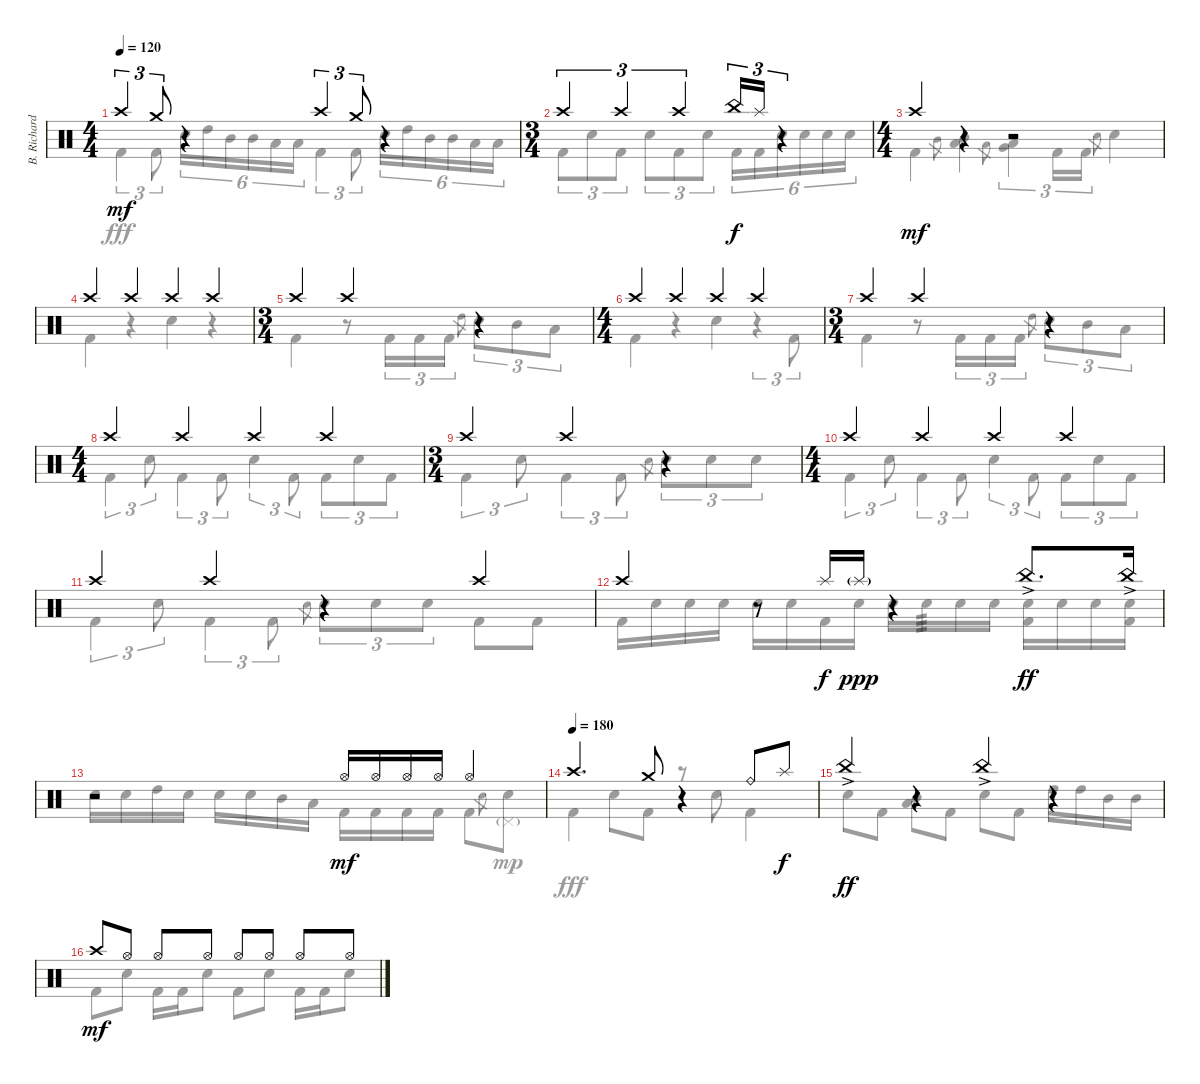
\track ("B. Richardson Drums" "B. Richard") {instrument percussion}
\staff {score}
\articulation defaults
\voice
\ts (4 4)
\tempo 120
\clef neutral
\ks c "Crash high (hit)".4{tu (3 2) dy mf} "Crash medium (hit)".8{tu (3 2)}
r.4 "Crash high (hit)".4{tu (3 2)} "Crash medium (hit)".8{tu (3 2)} r.4 |
\ts (3 4)
"Crash high (hit)".4{tu (3 2)} "Crash high (hit)".4{tu (3 2)} "Crash high (hit)".4{tu (3 2)} "China (hit)".16{tu (3 2) dy f} "Splash (hit)".16{tu (3 2)} r.4{tu (3 2)} |
\ts (4 4)
"Crash high (hit)".4{dy mf} r.4 r.2 |
"Crash high (hit)".4 "Crash high (hit)".4 "Crash high (hit)".4 "Crash high (hit)".4 |
\ts (3 4)
"Crash high (hit)".4 "Crash high (hit)".4 r.4 |
\ts (4 4)
"Crash high (hit)".4 "Crash high (hit)".4 "Crash high (hit)".4 "Crash high (hit)".4 |
\ts (3 4)
"Crash high (hit)".4 "Crash high (hit)".4 r.4 |
\ts (4 4)
"Crash high (hit)".4 "Crash high (hit)".4 "Crash high (hit)".4 "Crash high (hit)".4 |
\ts (3 4)
"Crash high (hit)".4 "Crash high (hit)".4 r.4 |
\ts (4 4)
"Crash high (hit)".4 "Crash high (hit)".4 "Crash high (hit)".4 "Crash high (hit)".4 |
"Crash high (hit)".4 "Crash high (hit)".4 r.4 "Crash high (hit)".4 |
"Crash high (hit)".4 r.8 "Splash (hit)".16{dy f} "Splash (hit)"{g}.16{dy ppp} r.4 "China (hit)"{ac}.8{d dy ff} "China (hit)"{ac}.16 |
r.2 "Hi-Hat (open)".16{dy mf} "Hi-Hat (open)".16 "Hi-Hat (open)".16 "Hi-Hat (open)".16 "Hi-Hat (open)".4 |
\tempo (180)
"Crash high (hit)".4{d} "Crash medium (hit)".8 r.4 "Ride (bell)".8 "Splash (hit)".8{dy f} |
"China (hit)"{ac}.4{dy ff} r.4 "China (hit)"{ac}.4 r.4 |
"Crash high (hit)".8{dy mf} "Hi-Hat (open)".8 "Hi-Hat (open)".8 "Hi-Hat (open)".8 "Hi-Hat (open)".8 "Hi-Hat (open)".8 "Hi-Hat (open)".8 "Hi-Hat (open)".8
\voice
\clef neutral
\ottava regular
\simile none
\ks c "Kick (hit) 2".4{tu (3 2) dy fff} "Kick (hit) 2".8{tu (3 2)} "Electric Snare (hit)".16{tu (6 4)} "High Tom (hit)".16{tu (6 4)} "Mid Tom (hit)".16{tu (6 4)} "Mid Tom (hit)".16{tu (6 4)} "Low Tom (hit)".16{tu (6 4)} "Low Tom (hit)".16{tu (6 4)} "Kick (hit) 2".4{tu (3 2)} "Kick (hit) 2".8{tu (3 2)} "Electric Snare (hit)".16{tu (6 4)} "High Tom (hit)".16{tu (6 4)} "Mid Tom (hit)".16{tu (6 4)} "Mid Tom (hit)".16{tu (6 4)} "Low Tom (hit)".16{tu (6 4)} "Low Tom (hit)".16{tu (6 4)}
|
"Kick (hit) 2".8{tu (3 2)} "Electric Snare (hit)".8{tu (3 2)} "Kick (hit) 2".8{tu (3 2)} "Electric Snare (hit)".8{tu (3 2)} "Kick (hit) 2".8{tu (3 2)} "Electric Snare (hit)".8{tu (3 2)} "Kick (hit) 2".16{tu (6 4)} "Kick (hit) 2".16{tu (6 4)} "Electric Snare (hit)".16{tu (6 4)} "Electric Snare (hit)".16{tu (6 4)} "Electric Snare (hit)".16{tu (6 4)} "Electric Snare (hit)".16{tu (6 4)} |
"Kick (hit) 2".4 "Mid Tom (hit)".8{gr} ("Mid Tom (hit)" "Low Tom (hit)").4 "Low Tom (hit)".8{gr} ("Low Tom (hit)" "Very Low Tom (hit)").4{tu (3 2)} "Kick (hit) 2".16{tu (3 2)} "Kick (hit) 2".16{tu (3 2)} "Electric Snare (hit)".8{gr} "Electric Snare (hit)".4 |
"Kick (hit) 2".4 r.4 "Electric Snare (hit)".4 r.4 |
"Kick (hit) 2".4 r.8 "Kick (hit) 2".16{tu (3 2)} "Kick (hit) 2".16{tu (3 2)} "Kick (hit) 2".16{tu (3 2)} "High Tom (hit)".8{gr} "Electric Snare (hit)".8{tu (3 2)} "Mid Tom (hit)".8{tu (3 2)} "Low Tom (hit)".8{tu (3 2)} |
"Kick (hit) 2".4 r.4 "Electric Snare (hit)".4 r.4{tu (3 2)} "Kick (hit) 2".8{tu (3 2)} |
"Kick (hit) 2".4 r.8 "Kick (hit) 2".16{tu (3 2)} "Kick (hit) 2".16{tu (3 2)} "Kick (hit) 2".16{tu (3 2)} "High Tom (hit)".8{gr} "Electric Snare (hit)".8{tu (3 2)} "Mid Tom (hit)".8{tu (3 2)} "Low Tom (hit)".8{tu (3 2)} |
"Kick (hit) 2".4{tu (3 2)} "Electric Snare (hit)".8{tu (3 2)} "Kick (hit) 2".4{tu (3 2)} "Kick (hit) 2".8{tu (3 2)} "Electric Snare (hit)".4{tu (3 2)} "Kick (hit) 2".8{tu (3 2)} "Kick (hit) 2".8{tu (3 2)} "Electric Snare (hit)".8{tu (3 2)} "Kick (hit) 2".8{tu (3 2)} |
"Kick (hit) 2".4{tu (3 2)} "Electric Snare (hit)".8{tu (3 2)} "Kick (hit) 2".4{tu (3 2)} "Kick (hit) 2".8{tu (3 2)} "Electric Snare (hit)".8{gr} "Electric Snare (hit)".8{tu (3 2)} "Electric Snare (hit)".8{tu (3 2)} "Electric Snare (hit)".8{tu (3 2)} |
"Kick (hit) 2".4{tu (3 2)} "Electric Snare (hit)".8{tu (3 2)} "Kick (hit) 2".4{tu (3 2)} "Kick (hit) 2".8{tu (3 2)} "Electric Snare (hit)".4{tu (3 2)} "Kick (hit) 2".8{tu (3 2)} "Kick (hit) 2".8{tu (3 2)} "Electric Snare (hit)".8{tu (3 2)} "Kick (hit) 2".8{tu (3 2)} |
"Kick (hit) 2".4{tu (3 2)} "Electric Snare (hit)".8{tu (3 2)} "Kick (hit) 2".4{tu (3 2)} "Kick (hit) 2".8{tu (3 2)} "Electric Snare (hit)".8{gr} "Electric Snare (hit)".8{tu (3 2)} "Electric Snare (hit)".8{tu (3 2)} "Electric Snare (hit)".8{tu (3 2)} "Kick (hit) 2".8 "Kick (hit) 2".8 |
"Kick (hit) 2".16 "Electric Snare (hit)".16 "Electric Snare (hit)".16 "Electric Snare (hit)".16 "Electric Snare (hit)".16 "Electric Snare (hit)".16 "Kick (hit) 2".16 "Electric Snare (hit)".16 "Electric Snare (hit)".16 "Electric Snare (hit)".16{tp 3} "Electric Snare (hit)".16 "Electric Snare (hit)".16 ("Electric Snare (hit)" "Kick (hit) 2").16 "Electric Snare (hit)".16 "Electric Snare (hit)".16 ("Electric Snare (hit)" "Kick (hit) 2").16 |
"Electric Snare (hit)".16 "Electric Snare (hit)".16 "High Tom (hit)".16 "Electric Snare (hit)".16 "Electric Snare (hit)".16 "Electric Snare (hit)".16 "Mid Tom (hit)".16 "Low Tom (hit)".16 "Kick (hit) 2".16 "Kick (hit) 2".16 "Kick (hit) 2".16 "Kick (hit) 2".16 "Kick (hit) 2".8 "Electric Snare (hit)".8{gr} ("Electric Snare (hit)" "Pedal Hi-Hat (hit)"{g}).8{dy mp} |
"Kick (hit) 2".4{dy fff} "Electric Snare (hit)".8 "Kick (hit) 2".8 r.8 "Electric Snare (hit)".8 "Kick (hit) 2".4 |
"Electric Snare (hit)".8 "Kick (hit) 2".8 ("Mid Tom (hit)" "Low Tom (hit)").8 "Kick (hit) 2".8 "Electric Snare (hit)".8 "Kick (hit) 2".8 "High Tom (hit)".16 "High Tom (hit)".16 "Mid Tom (hit)".16 "Mid Tom (hit)".16 |
"Kick (hit) 2".8 "Electric Snare (hit)".8 "Kick (hit) 2".16 "Kick (hit) 2".16 "Electric Snare (hit)".8 "Kick (hit) 2".8 "Electric Snare (hit)".8 "Kick (hit) 2".16 "Kick (hit) 2".16 "Electric Snare (hit)".8
